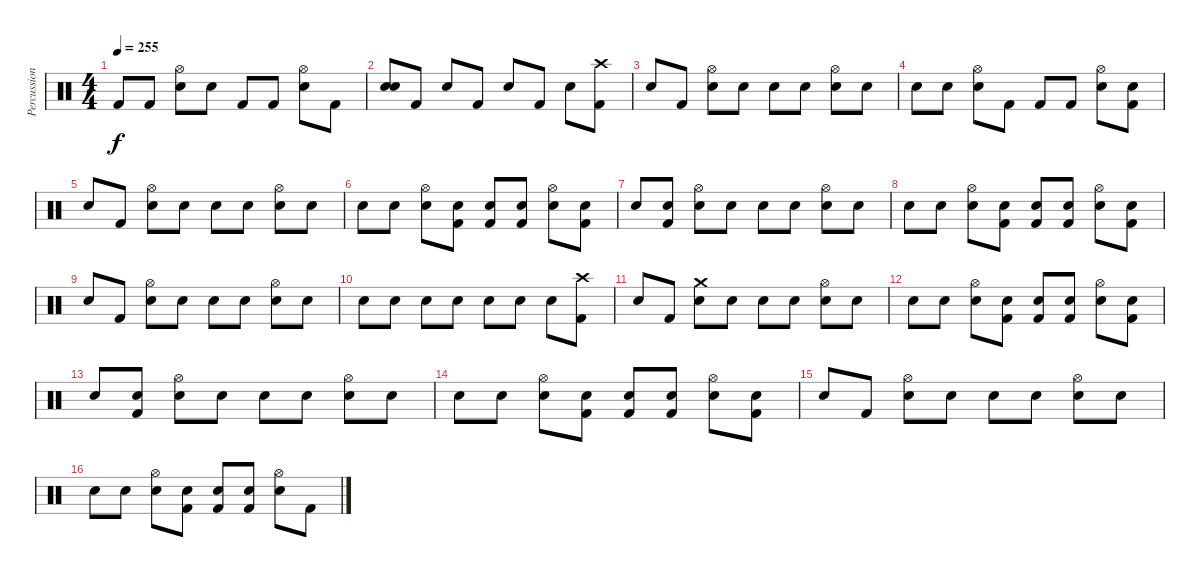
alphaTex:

\track ("Percussion" "Percussion") {instrument percussion}
\staff {score}
\articulation defaults
\ts (4 4)
\tempo 255
\clef neutral
\ks c "Kick (hit) 2".8{dy f} "Kick (hit) 2".8
("Snare (hit) 2" "Hi-Hat (open)").8 "Snare (hit)".8 "Kick (hit) 2".8 "Kick (hit) 2".8 ("Snare (hit) 2" "Hi-Hat (open)").8 "Kick (hit) 2".8 |
("Snare (hit)" "Snare (hit) 2").8 "Kick (hit) 2".8 "Snare (hit) 2".8 "Kick (hit) 2".8 "Snare (hit) 2".8 "Kick (hit) 2".8 "Snare (hit) 2".8 ("Kick (hit) 2" "Crash high (hit)").8 |
"Snare (hit)".8 "Kick (hit) 2".8 ("Snare (hit) 2" "Hi-Hat (open)").8 "Snare (hit)".8 "Snare (hit)".8 "Snare (hit)".8 ("Snare (hit) 2" "Hi-Hat (open)").8 "Snare (hit)".8 |
"Snare (hit)".8 "Snare (hit)".8 ("Snare (hit) 2" "Hi-Hat (open)").8 "Kick (hit) 2".8 "Kick (hit) 2".8 "Kick (hit) 2".8 ("Snare (hit) 2" "Hi-Hat (open)").8 ("Kick (hit) 2" "Snare (hit)").8 |
"Snare (hit)".8 "Kick (hit) 2".8 ("Snare (hit) 2" "Hi-Hat (open)").8 "Snare (hit)".8 "Snare (hit)".8 "Snare (hit)".8 ("Snare (hit) 2" "Hi-Hat (open)").8 "Snare (hit)".8 |
"Snare (hit)".8 "Snare (hit)".8 ("Snare (hit) 2" "Hi-Hat (open)").8 ("Kick (hit) 2" "Snare (hit)").8 ("Kick (hit) 2" "Snare (hit)").8 ("Kick (hit) 2" "Snare (hit)").8 ("Snare (hit) 2" "Hi-Hat (open)").8 ("Kick (hit) 2" "Snare (hit)").8 |
"Snare (hit)".8 ("Kick (hit) 2" "Snare (hit)").8 ("Snare (hit) 2" "Hi-Hat (open)").8 "Snare (hit)".8 "Snare (hit)".8 "Snare (hit)".8 ("Snare (hit) 2" "Hi-Hat (open)").8 "Snare (hit)".8 |
"Snare (hit)".8 "Snare (hit)".8 ("Snare (hit) 2" "Hi-Hat (open)").8 ("Kick (hit) 2" "Snare (hit)").8 ("Kick (hit) 2" "Snare (hit)").8 ("Kick (hit) 2" "Snare (hit)").8 ("Snare (hit) 2" "Hi-Hat (open)").8 ("Kick (hit) 2" "Snare (hit)").8 |
"Snare (hit)".8 "Kick (hit) 2".8 ("Snare (hit) 2" "Hi-Hat (open)").8 "Snare (hit) 2".8 "Snare (hit) 2".8 "Snare (hit) 2".8 ("Snare (hit) 2" "Hi-Hat (open)").8 "Snare (hit) 2".8 |
"Snare (hit) 2".8 "Snare (hit) 2".8 "Snare (hit) 2".8 "Snare (hit) 2".8 "Snare (hit) 2".8 "Snare (hit) 2".8 "Snare (hit) 2".8 ("Kick (hit) 2" "Crash high (hit)").8 |
"Snare (hit)".8 "Kick (hit) 2".8 ("Snare (hit) 2" "Crash medium (hit)").8 "Snare (hit)".8 "Snare (hit)".8 "Snare (hit)".8 ("Snare (hit) 2" "Hi-Hat (open)").8 "Snare (hit)".8 |
"Snare (hit)".8 "Snare (hit)".8 ("Snare (hit) 2" "Hi-Hat (open)").8 ("Kick (hit) 2" "Snare (hit)").8 ("Kick (hit) 2" "Snare (hit)").8 ("Kick (hit) 2" "Snare (hit)").8 ("Snare (hit) 2" "Hi-Hat (open)").8 ("Kick (hit) 2" "Snare (hit)").8 |
"Snare (hit)".8 ("Kick (hit) 2" "Snare (hit)").8 ("Snare (hit) 2" "Hi-Hat (open)").8 "Snare (hit)".8 "Snare (hit)".8 "Snare (hit)".8 ("Snare (hit) 2" "Hi-Hat (open)").8 "Snare (hit)".8 |
"Snare (hit)".8 "Snare (hit)".8 ("Snare (hit) 2" "Hi-Hat (open)").8 ("Kick (hit) 2" "Snare (hit)").8 ("Kick (hit) 2" "Snare (hit)").8 ("Kick (hit) 2" "Snare (hit)").8 ("Snare (hit) 2" "Hi-Hat (open)").8 ("Kick (hit) 2" "Snare (hit)").8 |
"Snare (hit)".8 "Kick (hit) 2".8 ("Snare (hit) 2" "Hi-Hat (open)").8 "Snare (hit)".8 "Snare (hit)".8 "Snare (hit)".8 ("Snare (hit) 2" "Hi-Hat (open)").8 "Snare (hit)".8 |
"Snare (hit)".8 "Snare (hit)".8 ("Snare (hit) 2" "Hi-Hat (open)").8 ("Kick (hit) 2" "Snare (hit)").8 ("Kick (hit) 2" "Snare (hit)").8 ("Kick (hit) 2" "Snare (hit)").8 ("Snare (hit) 2" "Hi-Hat (open)").8 "Kick (hit) 2".8
